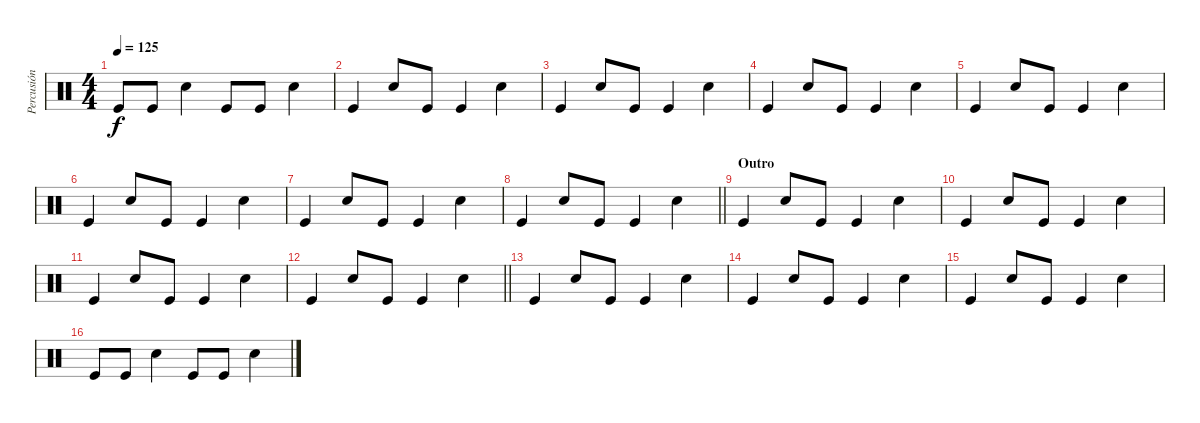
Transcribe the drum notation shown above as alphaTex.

\track ("Percusión" "Percusión") {instrument percussion}
\staff {score}
\articulation defaults
\ts (4 4)
\tempo 125
\clef neutral
\ks c "Kick (hit)".8{dy f} "Kick (hit)".8 "Snare (hit) 2".4 "Kick (hit)".8 "Kick (hit)".8 "Snare (hit) 2".4
|
"Kick (hit)".4 "Snare (hit) 2".8 "Kick (hit)".8 "Kick (hit)".4 "Snare (hit) 2".4 |
"Kick (hit)".4 "Snare (hit) 2".8 "Kick (hit)".8 "Kick (hit)".4 "Snare (hit) 2".4 |
"Kick (hit)".4 "Snare (hit) 2".8 "Kick (hit)".8 "Kick (hit)".4 "Snare (hit) 2".4 |
"Kick (hit)".4 "Snare (hit) 2".8 "Kick (hit)".8 "Kick (hit)".4 "Snare (hit) 2".4 |
"Kick (hit)".4 "Snare (hit) 2".8 "Kick (hit)".8 "Kick (hit)".4 "Snare (hit) 2".4 |
"Kick (hit)".4 "Snare (hit) 2".8 "Kick (hit)".8 "Kick (hit)".4 "Snare (hit) 2".4 |
\barLineRight lightlight "Kick (hit)".4 "Snare (hit) 2".8 "Kick (hit)".8 "Kick (hit)".4 "Snare (hit) 2".4
|
\section ("" "Outro")
"Kick (hit)".4 "Snare (hit) 2".8 "Kick (hit)".8 "Kick (hit)".4 "Snare (hit) 2".4 |
"Kick (hit)".4 "Snare (hit) 2".8 "Kick (hit)".8 "Kick (hit)".4 "Snare (hit) 2".4 |
"Kick (hit)".4 "Snare (hit) 2".8 "Kick (hit)".8 "Kick (hit)".4 "Snare (hit) 2".4 |
\barLineRight lightlight "Kick (hit)".4 "Snare (hit) 2".8 "Kick (hit)".8 "Kick (hit)".4 "Snare (hit) 2".4
|
"Kick (hit)".4 "Snare (hit) 2".8 "Kick (hit)".8 "Kick (hit)".4 "Snare (hit) 2".4 |
"Kick (hit)".4 "Snare (hit) 2".8 "Kick (hit)".8 "Kick (hit)".4 "Snare (hit) 2".4 |
"Kick (hit)".4 "Snare (hit) 2".8 "Kick (hit)".8 "Kick (hit)".4 "Snare (hit) 2".4 |
"Kick (hit)".8 "Kick (hit)".8 "Snare (hit) 2".4 "Kick (hit)".8 "Kick (hit)".8 "Snare (hit) 2".4
